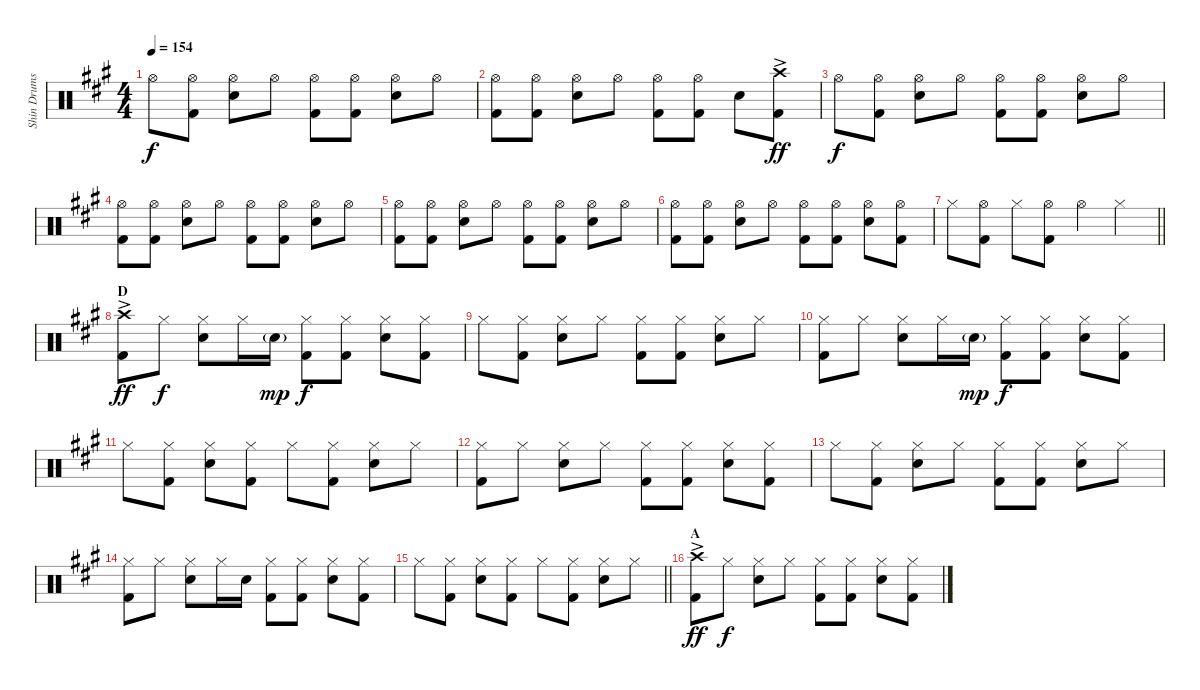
\track ("Shin Drums" "Shin Drums") {instrument percussion}
\staff {score}
\articulation defaults
\ts (4 4)
\tempo 154
\clef neutral
\ks a "Hi-Hat (open)".8{dy f}
("Hi-Hat (open)" "Kick (hit) 2").8 ("Hi-Hat (open)" "Snare (hit) 2").8 "Hi-Hat (open)".8 ("Hi-Hat (open)" "Kick (hit) 2").8 ("Hi-Hat (open)" "Kick (hit) 2").8 ("Hi-Hat (open)" "Snare (hit) 2").8 "Hi-Hat (open)".8 |
("Hi-Hat (open)" "Kick (hit) 2").8 ("Hi-Hat (open)" "Kick (hit) 2").8 ("Hi-Hat (open)" "Snare (hit) 2").8 "Hi-Hat (open)".8 ("Hi-Hat (open)" "Kick (hit) 2").8 ("Hi-Hat (open)" "Kick (hit) 2").8 "Snare (hit) 2".8 ("Crash high (hit)"{ac} "Kick (hit) 2").8{dy ff} |
"Hi-Hat (open)".8{dy f} ("Hi-Hat (open)" "Kick (hit) 2").8 ("Hi-Hat (open)" "Snare (hit) 2").8 "Hi-Hat (open)".8 ("Hi-Hat (open)" "Kick (hit) 2").8 ("Hi-Hat (open)" "Kick (hit) 2").8 ("Hi-Hat (open)" "Snare (hit) 2").8 "Hi-Hat (open)".8 |
("Hi-Hat (open)" "Kick (hit) 2").8 ("Hi-Hat (open)" "Kick (hit) 2").8 ("Hi-Hat (open)" "Snare (hit) 2").8 "Hi-Hat (open)".8 ("Hi-Hat (open)" "Kick (hit) 2").8 ("Hi-Hat (open)" "Kick (hit) 2").8 ("Hi-Hat (open)" "Snare (hit) 2").8 "Hi-Hat (open)".8 |
("Hi-Hat (open)" "Kick (hit) 2").8 ("Hi-Hat (open)" "Kick (hit) 2").8 ("Hi-Hat (open)" "Snare (hit) 2").8 "Hi-Hat (open)".8 ("Hi-Hat (open)" "Kick (hit) 2").8 ("Hi-Hat (open)" "Kick (hit) 2").8 ("Hi-Hat (open)" "Snare (hit) 2").8 "Hi-Hat (open)".8 |
("Hi-Hat (open)" "Kick (hit) 2").8 ("Hi-Hat (open)" "Kick (hit) 2").8 ("Hi-Hat (open)" "Snare (hit) 2").8 "Hi-Hat (open)".8 ("Hi-Hat (open)" "Kick (hit) 2").8 ("Hi-Hat (open)" "Kick (hit) 2").8 ("Hi-Hat (open)" "Snare (hit) 2").8 ("Hi-Hat (open)" "Kick (hit) 2").8 |
\barLineRight lightlight "Hi-Hat (closed)".8
("Hi-Hat (open)" "Kick (hit) 2").8 "Hi-Hat (closed)".8 ("Hi-Hat (open)" "Kick (hit) 2").8 "Hi-Hat (open)".4 "Hi-Hat (closed)".4 |
\section ("" "D")
("Crash high (hit)"{ac} "Kick (hit) 2").8{dy ff} "Hi-Hat (closed)".8{dy f} ("Hi-Hat (closed)" "Snare (hit) 2").8 "Hi-Hat (closed)".16 "Snare (hit) 2"{g}.16{dy mp} ("Hi-Hat (closed)" "Kick (hit) 2").8{dy f} ("Hi-Hat (closed)" "Kick (hit) 2").8 ("Hi-Hat (closed)" "Snare (hit) 2").8 ("Hi-Hat (closed)" "Kick (hit) 2").8 |
"Hi-Hat (closed)".8 ("Hi-Hat (closed)" "Kick (hit) 2").8 ("Hi-Hat (closed)" "Snare (hit) 2").8 "Hi-Hat (closed)".8 ("Hi-Hat (closed)" "Kick (hit) 2").8 ("Hi-Hat (closed)" "Kick (hit) 2").8 ("Hi-Hat (closed)" "Snare (hit) 2").8 "Hi-Hat (closed)".8 |
("Hi-Hat (closed)" "Kick (hit) 2").8 "Hi-Hat (closed)".8 ("Hi-Hat (closed)" "Snare (hit) 2").8 "Hi-Hat (closed)".16 "Snare (hit) 2"{g}.16{dy mp} ("Hi-Hat (closed)" "Kick (hit) 2").8{dy f} ("Hi-Hat (closed)" "Kick (hit) 2").8 ("Hi-Hat (closed)" "Snare (hit) 2").8 ("Hi-Hat (closed)" "Kick (hit) 2").8 |
"Hi-Hat (closed)".8 ("Hi-Hat (closed)" "Kick (hit) 2").8 ("Hi-Hat (closed)" "Snare (hit) 2").8 ("Hi-Hat (closed)" "Kick (hit) 2").8 "Hi-Hat (closed)".8 ("Hi-Hat (closed)" "Kick (hit) 2").8 ("Hi-Hat (closed)" "Snare (hit) 2").8 "Hi-Hat (closed)".8 |
("Hi-Hat (closed)" "Kick (hit) 2").8 "Hi-Hat (closed)".8 ("Hi-Hat (closed)" "Snare (hit) 2").8 "Hi-Hat (closed)".8 ("Hi-Hat (closed)" "Kick (hit) 2").8 ("Hi-Hat (closed)" "Kick (hit) 2").8 ("Hi-Hat (closed)" "Snare (hit) 2").8 ("Hi-Hat (closed)" "Kick (hit) 2").8 |
"Hi-Hat (closed)".8 ("Hi-Hat (closed)" "Kick (hit) 2").8 ("Hi-Hat (closed)" "Snare (hit) 2").8 "Hi-Hat (closed)".8 ("Hi-Hat (closed)" "Kick (hit) 2").8 ("Hi-Hat (closed)" "Kick (hit) 2").8 ("Hi-Hat (closed)" "Snare (hit) 2").8 "Hi-Hat (closed)".8 |
("Hi-Hat (closed)" "Kick (hit) 2").8 "Hi-Hat (closed)".8 ("Hi-Hat (closed)" "Snare (hit) 2").8 "Hi-Hat (closed)".16 "Snare (hit) 2".16 ("Hi-Hat (closed)" "Kick (hit) 2").8 ("Hi-Hat (closed)" "Kick (hit) 2").8 ("Hi-Hat (closed)" "Snare (hit) 2").8 ("Hi-Hat (closed)" "Kick (hit) 2").8 |
\barLineRight lightlight "Hi-Hat (closed)".8
("Hi-Hat (closed)" "Kick (hit) 2").8 ("Hi-Hat (closed)" "Snare (hit) 2").8 ("Hi-Hat (closed)" "Kick (hit) 2").8 "Hi-Hat (closed)".8 ("Hi-Hat (closed)" "Kick (hit) 2").8 ("Hi-Hat (closed)" "Snare (hit) 2").8 "Hi-Hat (closed)".8 |
\section ("" "A")
("Crash high (hit)"{ac} "Kick (hit) 2").8{dy ff} "Hi-Hat (closed)".8{dy f} ("Hi-Hat (closed)" "Snare (hit) 2").8 "Hi-Hat (closed)".8 ("Hi-Hat (closed)" "Kick (hit) 2").8 ("Hi-Hat (closed)" "Kick (hit) 2").8 ("Hi-Hat (closed)" "Snare (hit) 2").8 ("Hi-Hat (closed)" "Kick (hit) 2").8
